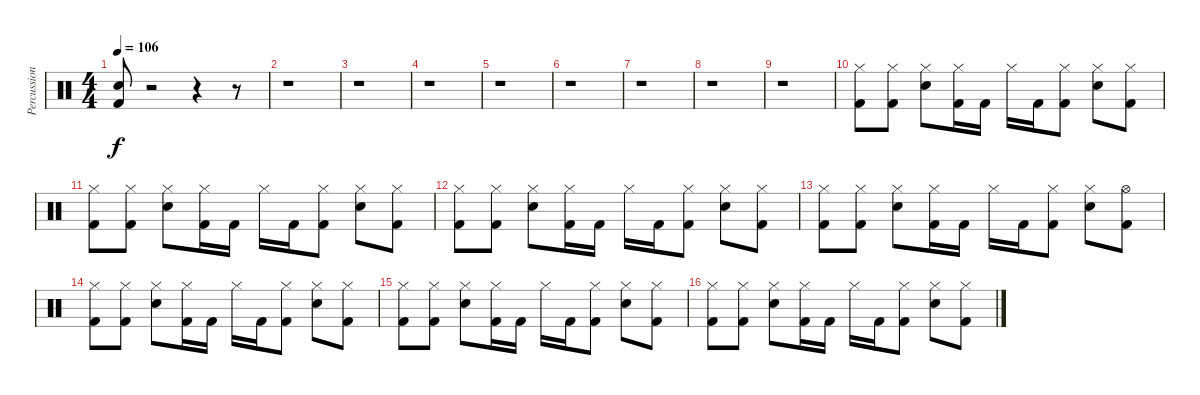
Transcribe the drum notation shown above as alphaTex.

\track ("Percussion" "Percussion") {instrument percussion}
\staff {score}
\articulation defaults
\ts (4 4)
\tempo 106
\clef neutral
\ks c
("Snare (hit) 2" "Kick (hit) 2").8{dy f} r.2 r.4 r.8 |
r.1 |
r.1 |
r.1 |
r.1 |
r.1 |
r.1 |
r.1 |
r.1 |
("Hi-Hat (closed)" "Kick (hit) 2").8 ("Hi-Hat (closed)" "Kick (hit) 2").8 ("Hi-Hat (closed)" "Snare (hit) 2").8 ("Hi-Hat (closed)" "Kick (hit) 2").16 "Kick (hit) 2".16 "Hi-Hat (closed)".16 "Kick (hit) 2".16 ("Hi-Hat (closed)" "Kick (hit) 2").8 ("Hi-Hat (closed)" "Snare (hit) 2").8 ("Hi-Hat (closed)" "Kick (hit) 2").8 |
("Hi-Hat (closed)" "Kick (hit) 2").8 ("Hi-Hat (closed)" "Kick (hit) 2").8 ("Hi-Hat (closed)" "Snare (hit) 2").8 ("Hi-Hat (closed)" "Kick (hit) 2").16 "Kick (hit) 2".16 "Hi-Hat (closed)".16 "Kick (hit) 2".16 ("Hi-Hat (closed)" "Kick (hit) 2").8 ("Hi-Hat (closed)" "Snare (hit) 2").8 ("Hi-Hat (closed)" "Kick (hit) 2").8 |
("Hi-Hat (closed)" "Kick (hit) 2").8 ("Hi-Hat (closed)" "Kick (hit) 2").8 ("Hi-Hat (closed)" "Snare (hit) 2").8 ("Hi-Hat (closed)" "Kick (hit) 2").16 "Kick (hit) 2".16 "Hi-Hat (closed)".16 "Kick (hit) 2".16 ("Hi-Hat (closed)" "Kick (hit) 2").8 ("Hi-Hat (closed)" "Snare (hit) 2").8 ("Hi-Hat (closed)" "Kick (hit) 2").8 |
("Hi-Hat (closed)" "Kick (hit) 2").8 ("Hi-Hat (closed)" "Kick (hit) 2").8 ("Hi-Hat (closed)" "Snare (hit) 2").8 ("Hi-Hat (closed)" "Kick (hit) 2").16 "Kick (hit) 2".16 "Hi-Hat (closed)".16 "Kick (hit) 2".16 ("Hi-Hat (closed)" "Kick (hit) 2").8 ("Hi-Hat (closed)" "Snare (hit) 2").8 ("Hi-Hat (open)" "Kick (hit) 2").8 |
("Hi-Hat (closed)" "Kick (hit) 2").8 ("Hi-Hat (closed)" "Kick (hit) 2").8 ("Hi-Hat (closed)" "Snare (hit) 2").8 ("Hi-Hat (closed)" "Kick (hit) 2").16 "Kick (hit) 2".16 "Hi-Hat (closed)".16 "Kick (hit) 2".16 ("Hi-Hat (closed)" "Kick (hit) 2").8 ("Hi-Hat (closed)" "Snare (hit) 2").8 ("Hi-Hat (closed)" "Kick (hit) 2").8 |
("Hi-Hat (closed)" "Kick (hit) 2").8 ("Hi-Hat (closed)" "Kick (hit) 2").8 ("Hi-Hat (closed)" "Snare (hit) 2").8 ("Hi-Hat (closed)" "Kick (hit) 2").16 "Kick (hit) 2".16 "Hi-Hat (closed)".16 "Kick (hit) 2".16 ("Hi-Hat (closed)" "Kick (hit) 2").8 ("Hi-Hat (closed)" "Snare (hit) 2").8 ("Hi-Hat (closed)" "Kick (hit) 2").8 |
("Hi-Hat (closed)" "Kick (hit) 2").8 ("Hi-Hat (closed)" "Kick (hit) 2").8 ("Hi-Hat (closed)" "Snare (hit) 2").8 ("Hi-Hat (closed)" "Kick (hit) 2").16 "Kick (hit) 2".16 "Hi-Hat (closed)".16 "Kick (hit) 2".16 ("Hi-Hat (closed)" "Kick (hit) 2").8 ("Hi-Hat (closed)" "Snare (hit) 2").8 ("Hi-Hat (closed)" "Kick (hit) 2").8
